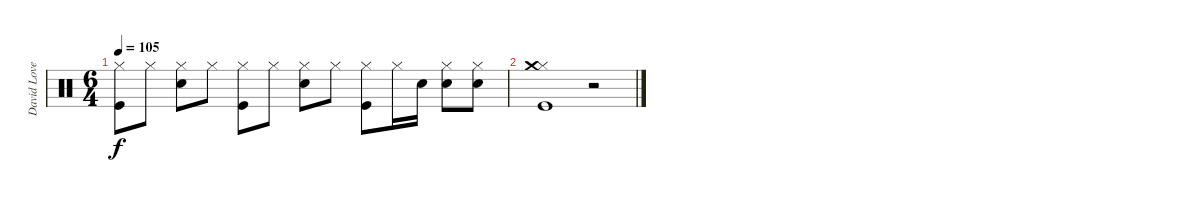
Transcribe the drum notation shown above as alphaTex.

\track ("David Lovering" "David Love") {instrument percussion}
\staff {score}
\articulation defaults
\ts (6 4)
\tempo 105
\clef neutral
\ks c
("Hi-Hat (closed)" "Kick (hit)").8{dy f} "Hi-Hat (closed)".8 ("Hi-Hat (closed)" "Snare (hit) 2").8 "Hi-Hat (closed)".8 ("Hi-Hat (closed)" "Kick (hit)").8 "Hi-Hat (closed)".8 ("Hi-Hat (closed)" "Snare (hit) 2").8 "Hi-Hat (closed)".8 ("Hi-Hat (closed)" "Kick (hit)").8 "Hi-Hat (closed)".16 "Snare (hit) 2".16 ("Hi-Hat (closed)" "Snare (hit) 2").8 ("Hi-Hat (closed)" "Snare (hit) 2").8 |
("Hi-Hat (closed)" "Crash medium (hit)" "Kick (hit)").1 r.2
